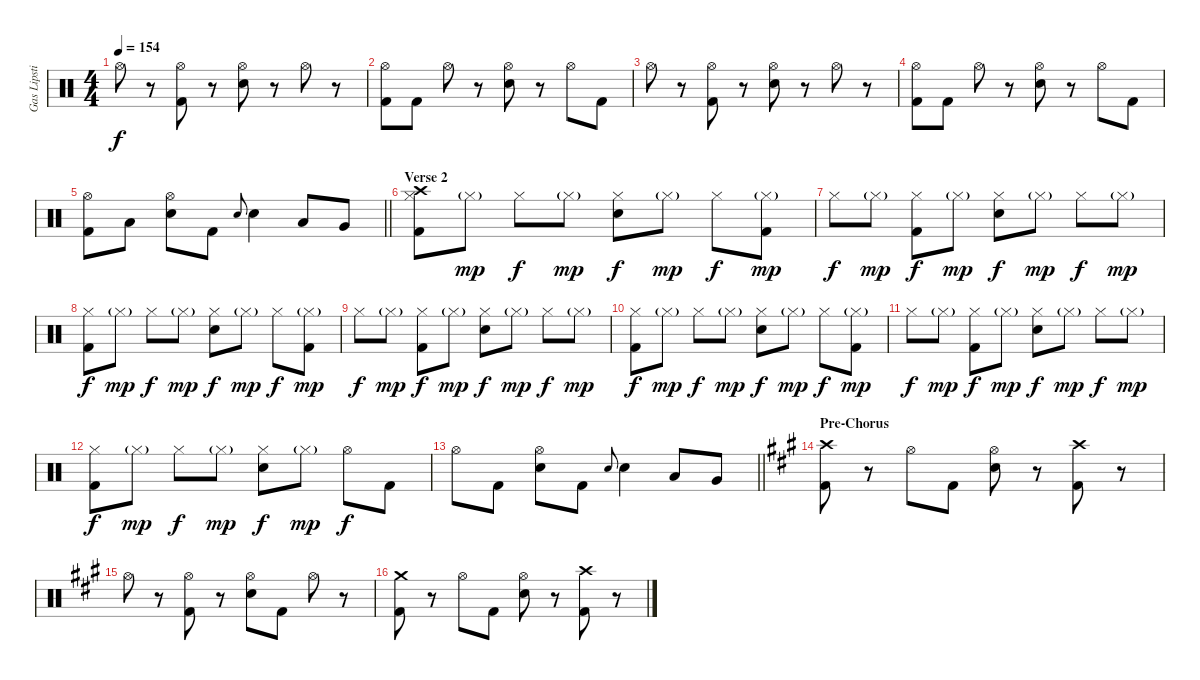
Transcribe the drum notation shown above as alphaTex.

\track ("Gas Lipstick (Drums)" "Gas Lipsti") {instrument percussion}
\staff {score}
\articulation defaults
\ts (4 4)
\tempo 154
\clef neutral
\ks c "Hi-Hat (open)".8{dy f}
r.8 ("Hi-Hat (open)" "Kick (hit) 2").8 r.8 ("Hi-Hat (open)" "Snare (hit) 2").8 r.8 "Hi-Hat (open)".8 r.8 |
("Hi-Hat (open)" "Kick (hit) 2").8 "Kick (hit) 2".8 "Hi-Hat (open)".8 r.8 ("Hi-Hat (open)" "Snare (hit) 2").8 r.8 "Hi-Hat (open)".8 "Kick (hit) 2".8 |
"Hi-Hat (open)".8 r.8 ("Hi-Hat (open)" "Kick (hit) 2").8 r.8 ("Hi-Hat (open)" "Snare (hit) 2").8 r.8 "Hi-Hat (open)".8 r.8 |
("Hi-Hat (open)" "Kick (hit) 2").8 "Kick (hit) 2".8 "Hi-Hat (open)".8 r.8 ("Hi-Hat (open)" "Snare (hit) 2").8 r.8 "Hi-Hat (open)".8 "Kick (hit) 2".8 |
\barLineRight lightlight
("Hi-Hat (open)" "Kick (hit) 2").8 "Low Tom (hit)".8 ("Hi-Hat (open)" "Snare (hit) 2").8 "Kick (hit) 2".8 "Snare (hit) 2".8{gr onbeat} "Snare (hit) 2".4 "Low Tom (hit)".8 "Very Low Tom (hit)".8 |
\section ("" "Verse 2")
("Crash high (hit)" "Hi-Hat (closed)" "Kick (hit) 2").8 "Hi-Hat (closed)"{g}.8{dy mp} "Hi-Hat (closed)".8{dy f} "Hi-Hat (closed)"{g}.8{dy mp} ("Hi-Hat (closed)" "Snare (hit) 2").8{dy f} "Hi-Hat (closed)"{g}.8{dy mp} "Hi-Hat (closed)".8{dy f} ("Hi-Hat (closed)"{g} "Kick (hit) 2").8{dy mp} |
"Hi-Hat (closed)".8{dy f} "Hi-Hat (closed)"{g}.8{dy mp} ("Hi-Hat (closed)" "Kick (hit) 2").8{dy f} "Hi-Hat (closed)"{g}.8{dy mp} ("Hi-Hat (closed)" "Snare (hit) 2").8{dy f} "Hi-Hat (closed)"{g}.8{dy mp} "Hi-Hat (closed)".8{dy f} "Hi-Hat (closed)"{g}.8{dy mp} |
("Hi-Hat (closed)" "Kick (hit) 2").8{dy f} "Hi-Hat (closed)"{g}.8{dy mp} "Hi-Hat (closed)".8{dy f} "Hi-Hat (closed)"{g}.8{dy mp} ("Hi-Hat (closed)" "Snare (hit) 2").8{dy f} "Hi-Hat (closed)"{g}.8{dy mp} "Hi-Hat (closed)".8{dy f} ("Hi-Hat (closed)"{g} "Kick (hit) 2").8{dy mp} |
"Hi-Hat (closed)".8{dy f} "Hi-Hat (closed)"{g}.8{dy mp} ("Hi-Hat (closed)" "Kick (hit) 2").8{dy f} "Hi-Hat (closed)"{g}.8{dy mp} ("Hi-Hat (closed)" "Snare (hit) 2").8{dy f} "Hi-Hat (closed)"{g}.8{dy mp} "Hi-Hat (closed)".8{dy f} "Hi-Hat (closed)"{g}.8{dy mp} |
("Hi-Hat (closed)" "Kick (hit) 2").8{dy f} "Hi-Hat (closed)"{g}.8{dy mp} "Hi-Hat (closed)".8{dy f} "Hi-Hat (closed)"{g}.8{dy mp} ("Hi-Hat (closed)" "Snare (hit) 2").8{dy f} "Hi-Hat (closed)"{g}.8{dy mp} "Hi-Hat (closed)".8{dy f} ("Hi-Hat (closed)"{g} "Kick (hit) 2").8{dy mp} |
"Hi-Hat (closed)".8{dy f} "Hi-Hat (closed)"{g}.8{dy mp} ("Hi-Hat (closed)" "Kick (hit) 2").8{dy f} "Hi-Hat (closed)"{g}.8{dy mp} ("Hi-Hat (closed)" "Snare (hit) 2").8{dy f} "Hi-Hat (closed)"{g}.8{dy mp} "Hi-Hat (closed)".8{dy f} "Hi-Hat (closed)"{g}.8{dy mp} |
("Hi-Hat (closed)" "Kick (hit) 2").8{dy f} "Hi-Hat (closed)"{g}.8{dy mp} "Hi-Hat (closed)".8{dy f} "Hi-Hat (closed)"{g}.8{dy mp} ("Hi-Hat (closed)" "Snare (hit) 2").8{dy f} "Hi-Hat (closed)"{g}.8{dy mp} "Hi-Hat (open)".8{dy f} "Kick (hit) 2".8 |
\barLineRight lightlight "Hi-Hat (open)".8 "Kick (hit) 2".8
("Hi-Hat (open)" "Snare (hit) 2").8 "Kick (hit) 2".8 "Snare (hit) 2".8{gr onbeat} "Snare (hit) 2".4 "Low Tom (hit)".8 "Very Low Tom (hit)".8 |
\section ("" "Pre-Chorus")
\ks a
("Crash high (hit)" "Kick (hit) 2").8 r.8 "Hi-Hat (open)".8 "Kick (hit) 2".8 ("Hi-Hat (open)" "Snare (hit) 2").8 r.8 ("Crash high (hit)" "Kick (hit) 2").8 r.8 |
"Hi-Hat (open)".8 r.8 ("Hi-Hat (open)" "Kick (hit) 2").8 r.8 ("Hi-Hat (open)" "Snare (hit) 2").8 "Kick (hit) 2".8 "Hi-Hat (open)".8 r.8 |
("Crash medium (hit)" "Kick (hit) 2").8 r.8 "Hi-Hat (open)".8 "Kick (hit) 2".8 ("Hi-Hat (open)" "Snare (hit) 2").8 r.8 ("Crash high (hit)" "Kick (hit) 2").8 r.8
